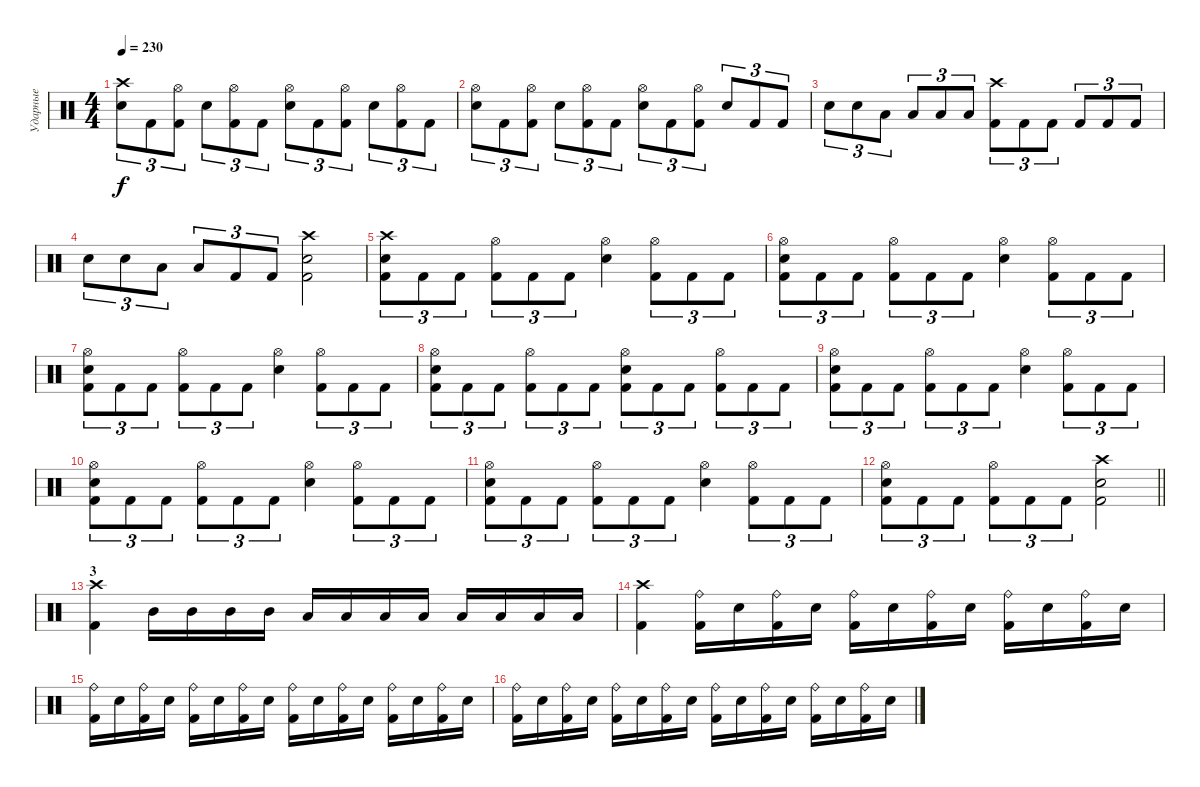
\track ("Ударные" "Ударные") {instrument percussion}
\staff {score}
\articulation defaults
\ts (4 4)
\tempo 230
\clef neutral
\ks c
("Crash high (hit)" "Snare (hit) 2").8{tu (3 2) dy f} "Kick (hit) 2".8{tu (3 2)} ("Hi-Hat (open)" "Kick (hit) 2").8{tu (3 2)} "Snare (hit) 2".8{tu (3 2)} ("Hi-Hat (open)" "Kick (hit) 2").8{tu (3 2)} "Kick (hit) 2".8{tu (3 2)} ("Hi-Hat (open)" "Snare (hit) 2").8{tu (3 2)} "Kick (hit) 2".8{tu (3 2)} ("Hi-Hat (open)" "Kick (hit) 2").8{tu (3 2)} "Snare (hit) 2".8{tu (3 2)} ("Hi-Hat (open)" "Kick (hit) 2").8{tu (3 2)} "Kick (hit) 2".8{tu (3 2)} |
("Hi-Hat (open)" "Snare (hit) 2").8{tu (3 2)} "Kick (hit) 2".8{tu (3 2)} ("Hi-Hat (open)" "Kick (hit) 2").8{tu (3 2)} "Snare (hit) 2".8{tu (3 2)} ("Hi-Hat (open)" "Kick (hit) 2").8{tu (3 2)} "Kick (hit) 2".8{tu (3 2)} ("Hi-Hat (open)" "Snare (hit) 2").8{tu (3 2)} "Kick (hit) 2".8{tu (3 2)} ("Hi-Hat (open)" "Kick (hit) 2").8{tu (3 2)} "Snare (hit) 2".8{tu (3 2)} "Kick (hit) 2".8{tu (3 2)} "Kick (hit) 2".8{tu (3 2)} |
"Snare (hit) 2".8{tu (3 2)} "Snare (hit) 2".8{tu (3 2)} "Low Tom (hit)".8{tu (3 2)} "Low Tom (hit)".8{tu (3 2)} "Low Floor Tom (hit)".8{tu (3 2)} "Low Floor Tom (hit)".8{tu (3 2)} ("Crash high (hit)" "Kick (hit) 2").8{tu (3 2)} "Kick (hit) 2".8{tu (3 2)} "Kick (hit) 2".8{tu (3 2)} "Kick (hit) 2".8{tu (3 2)} "Kick (hit) 2".8{tu (3 2)} "Kick (hit) 2".8{tu (3 2)} |
"Snare (hit) 2".8{tu (3 2)} "Snare (hit) 2".8{tu (3 2)} "Low Floor Tom (hit)".8{tu (3 2)} "Low Floor Tom (hit)".8{tu (3 2)} "Kick (hit) 2".8{tu (3 2)} "Kick (hit) 2".8{tu (3 2)} ("Crash high (hit)" "Snare (hit) 2" "Kick (hit) 2").2 |
("Crash high (hit)" "Snare (hit) 2" "Kick (hit) 2").8{tu (3 2)} "Kick (hit) 2".8{tu (3 2)} "Kick (hit) 2".8{tu (3 2)} ("Hi-Hat (open)" "Kick (hit) 2").8{tu (3 2)} "Kick (hit) 2".8{tu (3 2)} "Kick (hit) 2".8{tu (3 2)} ("Hi-Hat (open)" "Snare (hit) 2").4 ("Hi-Hat (open)" "Kick (hit) 2").8{tu (3 2)} "Kick (hit) 2".8{tu (3 2)} "Kick (hit) 2".8{tu (3 2)} |
("Hi-Hat (open)" "Snare (hit) 2" "Kick (hit) 2").8{tu (3 2)} "Kick (hit) 2".8{tu (3 2)} "Kick (hit) 2".8{tu (3 2)} ("Hi-Hat (open)" "Kick (hit) 2").8{tu (3 2)} "Kick (hit) 2".8{tu (3 2)} "Kick (hit) 2".8{tu (3 2)} ("Hi-Hat (open)" "Snare (hit) 2").4 ("Hi-Hat (open)" "Kick (hit) 2").8{tu (3 2)} "Kick (hit) 2".8{tu (3 2)} "Kick (hit) 2".8{tu (3 2)} |
("Hi-Hat (open)" "Snare (hit) 2" "Kick (hit) 2").8{tu (3 2)} "Kick (hit) 2".8{tu (3 2)} "Kick (hit) 2".8{tu (3 2)} ("Hi-Hat (open)" "Kick (hit) 2").8{tu (3 2)} "Kick (hit) 2".8{tu (3 2)} "Kick (hit) 2".8{tu (3 2)} ("Hi-Hat (open)" "Snare (hit) 2").4 ("Hi-Hat (open)" "Kick (hit) 2").8{tu (3 2)} "Kick (hit) 2".8{tu (3 2)} "Kick (hit) 2".8{tu (3 2)} |
("Hi-Hat (open)" "Snare (hit) 2" "Kick (hit) 2").8{tu (3 2)} "Kick (hit) 2".8{tu (3 2)} "Kick (hit) 2".8{tu (3 2)} ("Hi-Hat (open)" "Kick (hit) 2").8{tu (3 2)} "Kick (hit) 2".8{tu (3 2)} "Kick (hit) 2".8{tu (3 2)} ("Kick (hit) 2" "Hi-Hat (open)" "Snare (hit) 2").8{tu (3 2)} "Kick (hit) 2".8{tu (3 2)} "Kick (hit) 2".8{tu (3 2)} ("Hi-Hat (open)" "Kick (hit) 2").8{tu (3 2)} "Kick (hit) 2".8{tu (3 2)} "Kick (hit) 2".8{tu (3 2)} |
("Hi-Hat (open)" "Snare (hit) 2" "Kick (hit) 2").8{tu (3 2)} "Kick (hit) 2".8{tu (3 2)} "Kick (hit) 2".8{tu (3 2)} ("Hi-Hat (open)" "Kick (hit) 2").8{tu (3 2)} "Kick (hit) 2".8{tu (3 2)} "Kick (hit) 2".8{tu (3 2)} ("Hi-Hat (open)" "Snare (hit) 2").4 ("Hi-Hat (open)" "Kick (hit) 2").8{tu (3 2)} "Kick (hit) 2".8{tu (3 2)} "Kick (hit) 2".8{tu (3 2)} |
("Hi-Hat (open)" "Snare (hit) 2" "Kick (hit) 2").8{tu (3 2)} "Kick (hit) 2".8{tu (3 2)} "Kick (hit) 2".8{tu (3 2)} ("Hi-Hat (open)" "Kick (hit) 2").8{tu (3 2)} "Kick (hit) 2".8{tu (3 2)} "Kick (hit) 2".8{tu (3 2)} ("Hi-Hat (open)" "Snare (hit) 2").4 ("Hi-Hat (open)" "Kick (hit) 2").8{tu (3 2)} "Kick (hit) 2".8{tu (3 2)} "Kick (hit) 2".8{tu (3 2)} |
("Hi-Hat (open)" "Snare (hit) 2" "Kick (hit) 2").8{tu (3 2)} "Kick (hit) 2".8{tu (3 2)} "Kick (hit) 2".8{tu (3 2)} ("Hi-Hat (open)" "Kick (hit) 2").8{tu (3 2)} "Kick (hit) 2".8{tu (3 2)} "Kick (hit) 2".8{tu (3 2)} ("Hi-Hat (open)" "Snare (hit) 2").4 ("Hi-Hat (open)" "Kick (hit) 2").8{tu (3 2)} "Kick (hit) 2".8{tu (3 2)} "Kick (hit) 2".8{tu (3 2)} |
\barLineRight lightlight
("Hi-Hat (open)" "Snare (hit) 2" "Kick (hit) 2").8{tu (3 2)} "Kick (hit) 2".8{tu (3 2)} "Kick (hit) 2".8{tu (3 2)} ("Hi-Hat (open)" "Kick (hit) 2").8{tu (3 2)} "Kick (hit) 2".8{tu (3 2)} "Kick (hit) 2".8{tu (3 2)} ("Kick (hit) 2" "Crash high (hit)" "Snare (hit) 2").2 |
\section ("" "3")
("Crash high (hit)" "Kick (hit) 2").4 "Mid Tom (hit)".16 "Mid Tom (hit)".16 "Mid Tom (hit)".16 "Mid Tom (hit)".16 "Low Tom (hit)".16 "Low Tom (hit)".16 "Low Tom (hit)".16 "Low Tom (hit)".16 "Low Floor Tom (hit)".16 "Low Floor Tom (hit)".16 "Low Floor Tom (hit)".16 "Low Floor Tom (hit)".16 |
("Crash high (hit)" "Kick (hit) 2").4 ("Ride (bell)" "Kick (hit) 2").16 "Snare (hit) 2".16 ("Ride (bell)" "Kick (hit) 2").16 "Snare (hit) 2".16 ("Ride (bell)" "Kick (hit) 2").16 "Snare (hit) 2".16 ("Ride (bell)" "Kick (hit) 2").16 "Snare (hit) 2".16 ("Ride (bell)" "Kick (hit) 2").16 "Snare (hit) 2".16 ("Ride (bell)" "Kick (hit) 2").16 "Snare (hit) 2".16 |
("Ride (bell)" "Kick (hit) 2").16 "Snare (hit) 2".16 ("Ride (bell)" "Kick (hit) 2").16 "Snare (hit) 2".16 ("Ride (bell)" "Kick (hit) 2").16 "Snare (hit) 2".16 ("Ride (bell)" "Kick (hit) 2").16 "Snare (hit) 2".16 ("Ride (bell)" "Kick (hit) 2").16 "Snare (hit) 2".16 ("Ride (bell)" "Kick (hit) 2").16 "Snare (hit) 2".16 ("Ride (bell)" "Kick (hit) 2").16 "Snare (hit) 2".16 ("Ride (bell)" "Kick (hit) 2").16 "Snare (hit) 2".16 |
("Ride (bell)" "Kick (hit) 2").16 "Snare (hit) 2".16 ("Ride (bell)" "Kick (hit) 2").16 "Snare (hit) 2".16 ("Ride (bell)" "Kick (hit) 2").16 "Snare (hit) 2".16 ("Ride (bell)" "Kick (hit) 2").16 "Snare (hit) 2".16 ("Ride (bell)" "Kick (hit) 2").16 "Snare (hit) 2".16 ("Ride (bell)" "Kick (hit) 2").16 "Snare (hit) 2".16 ("Ride (bell)" "Kick (hit) 2").16 "Snare (hit) 2".16 ("Ride (bell)" "Kick (hit) 2").16 "Snare (hit) 2".16
